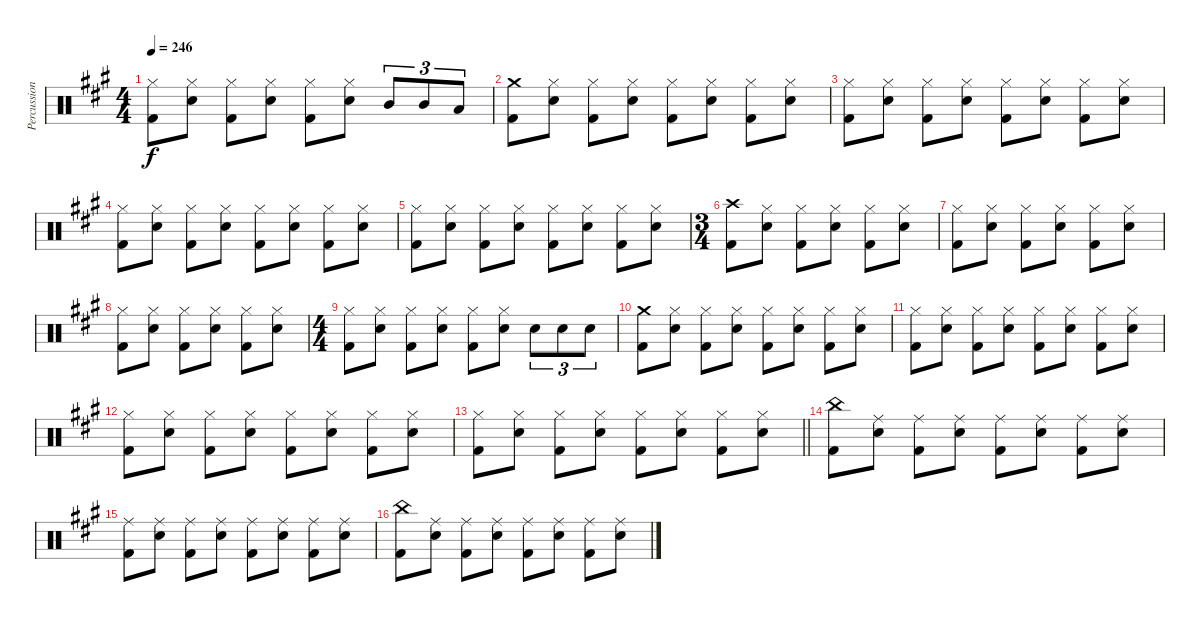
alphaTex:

\track ("Percussion" "Percussion") {instrument percussion}
\staff {score}
\articulation defaults
\ts (4 4)
\tempo 246
\clef neutral
\ks f#minor
("Hi-Hat (closed)" "Kick (hit) 2").8{dy f} ("Hi-Hat (closed)" "Electric Snare (hit)").8 ("Hi-Hat (closed)" "Kick (hit) 2").8 ("Hi-Hat (closed)" "Electric Snare (hit)").8 ("Hi-Hat (closed)" "Kick (hit) 2").8 ("Hi-Hat (closed)" "Electric Snare (hit)").8 "Mid Tom (hit)".8{tu (3 2)} "Mid Tom (hit)".8{tu (3 2)} "Low Tom (hit)".8{tu (3 2)} |
("Crash medium (hit)" "Kick (hit) 2").8 ("Hi-Hat (closed)" "Electric Snare (hit)").8 ("Hi-Hat (closed)" "Kick (hit) 2").8 ("Hi-Hat (closed)" "Electric Snare (hit)").8 ("Hi-Hat (closed)" "Kick (hit) 2").8 ("Hi-Hat (closed)" "Electric Snare (hit)").8 ("Hi-Hat (closed)" "Kick (hit) 2").8 ("Hi-Hat (closed)" "Electric Snare (hit)").8 |
("Hi-Hat (closed)" "Kick (hit) 2").8 ("Hi-Hat (closed)" "Electric Snare (hit)").8 ("Hi-Hat (closed)" "Kick (hit) 2").8 ("Hi-Hat (closed)" "Electric Snare (hit)").8 ("Hi-Hat (closed)" "Kick (hit) 2").8 ("Hi-Hat (closed)" "Electric Snare (hit)").8 ("Hi-Hat (closed)" "Kick (hit) 2").8 ("Hi-Hat (closed)" "Electric Snare (hit)").8 |
("Hi-Hat (closed)" "Kick (hit) 2").8 ("Hi-Hat (closed)" "Electric Snare (hit)").8 ("Hi-Hat (closed)" "Kick (hit) 2").8 ("Hi-Hat (closed)" "Electric Snare (hit)").8 ("Hi-Hat (closed)" "Kick (hit) 2").8 ("Hi-Hat (closed)" "Electric Snare (hit)").8 ("Hi-Hat (closed)" "Kick (hit) 2").8 ("Hi-Hat (closed)" "Electric Snare (hit)").8 |
("Hi-Hat (closed)" "Kick (hit) 2").8 ("Hi-Hat (closed)" "Electric Snare (hit)").8 ("Hi-Hat (closed)" "Kick (hit) 2").8 ("Hi-Hat (closed)" "Electric Snare (hit)").8 ("Hi-Hat (closed)" "Kick (hit) 2").8 ("Hi-Hat (closed)" "Electric Snare (hit)").8 ("Hi-Hat (closed)" "Kick (hit) 2").8 ("Hi-Hat (closed)" "Electric Snare (hit)").8 |
\ts (3 4)
("Crash high (hit)" "Kick (hit) 2").8 ("Hi-Hat (closed)" "Electric Snare (hit)").8 ("Hi-Hat (closed)" "Kick (hit) 2").8 ("Hi-Hat (closed)" "Electric Snare (hit)").8 ("Hi-Hat (closed)" "Kick (hit) 2").8 ("Hi-Hat (closed)" "Electric Snare (hit)").8 |
("Hi-Hat (closed)" "Kick (hit) 2").8 ("Hi-Hat (closed)" "Electric Snare (hit)").8 ("Hi-Hat (closed)" "Kick (hit) 2").8 ("Hi-Hat (closed)" "Electric Snare (hit)").8 ("Hi-Hat (closed)" "Kick (hit) 2").8 ("Hi-Hat (closed)" "Electric Snare (hit)").8 |
("Hi-Hat (closed)" "Kick (hit) 2").8 ("Hi-Hat (closed)" "Electric Snare (hit)").8 ("Hi-Hat (closed)" "Kick (hit) 2").8 ("Hi-Hat (closed)" "Electric Snare (hit)").8 ("Hi-Hat (closed)" "Kick (hit) 2").8 ("Hi-Hat (closed)" "Electric Snare (hit)").8 |
\ts (4 4)
("Hi-Hat (closed)" "Kick (hit) 2").8 ("Hi-Hat (closed)" "Electric Snare (hit)").8 ("Hi-Hat (closed)" "Kick (hit) 2").8 ("Hi-Hat (closed)" "Electric Snare (hit)").8 ("Hi-Hat (closed)" "Kick (hit) 2").8 ("Hi-Hat (closed)" "Electric Snare (hit)").8 "Electric Snare (hit)".8{tu (3 2)} "Electric Snare (hit)".8{tu (3 2)} "Electric Snare (hit)".8{tu (3 2)} |
("Crash medium (hit)" "Kick (hit) 2").8 ("Hi-Hat (closed)" "Electric Snare (hit)").8 ("Hi-Hat (closed)" "Kick (hit) 2").8 ("Hi-Hat (closed)" "Electric Snare (hit)").8 ("Hi-Hat (closed)" "Kick (hit) 2").8 ("Hi-Hat (closed)" "Electric Snare (hit)").8 ("Hi-Hat (closed)" "Kick (hit) 2").8 ("Hi-Hat (closed)" "Electric Snare (hit)").8 |
("Hi-Hat (closed)" "Kick (hit) 2").8 ("Hi-Hat (closed)" "Electric Snare (hit)").8 ("Hi-Hat (closed)" "Kick (hit) 2").8 ("Hi-Hat (closed)" "Electric Snare (hit)").8 ("Hi-Hat (closed)" "Kick (hit) 2").8 ("Hi-Hat (closed)" "Electric Snare (hit)").8 ("Hi-Hat (closed)" "Kick (hit) 2").8 ("Hi-Hat (closed)" "Electric Snare (hit)").8 |
("Hi-Hat (closed)" "Kick (hit) 2").8 ("Hi-Hat (closed)" "Electric Snare (hit)").8 ("Hi-Hat (closed)" "Kick (hit) 2").8 ("Hi-Hat (closed)" "Electric Snare (hit)").8 ("Hi-Hat (closed)" "Kick (hit) 2").8 ("Hi-Hat (closed)" "Electric Snare (hit)").8 ("Hi-Hat (closed)" "Kick (hit) 2").8 ("Hi-Hat (closed)" "Electric Snare (hit)").8 |
\barLineRight lightlight
("Hi-Hat (closed)" "Kick (hit) 2").8 ("Hi-Hat (closed)" "Electric Snare (hit)").8 ("Hi-Hat (closed)" "Kick (hit) 2").8 ("Hi-Hat (closed)" "Electric Snare (hit)").8 ("Hi-Hat (closed)" "Kick (hit) 2").8 ("Hi-Hat (closed)" "Electric Snare (hit)").8 ("Hi-Hat (closed)" "Kick (hit) 2").8 ("Hi-Hat (closed)" "Electric Snare (hit)").8 |
("China (hit)" "Kick (hit) 2").8 ("Ride (middle)" "Electric Snare (hit)").8 ("Ride (middle)" "Kick (hit) 2").8 ("Ride (middle)" "Electric Snare (hit)").8 ("Ride (middle)" "Kick (hit) 2").8 ("Ride (middle)" "Electric Snare (hit)").8 ("Ride (middle)" "Kick (hit) 2").8 ("Ride (middle)" "Electric Snare (hit)").8 |
("Ride (middle)" "Kick (hit) 2").8 ("Ride (middle)" "Electric Snare (hit)").8 ("Ride (middle)" "Kick (hit) 2").8 ("Ride (middle)" "Electric Snare (hit)").8 ("Ride (middle)" "Kick (hit) 2").8 ("Ride (middle)" "Electric Snare (hit)").8 ("Ride (middle)" "Kick (hit) 2").8 ("Ride (middle)" "Electric Snare (hit)").8 |
("China (hit)" "Kick (hit) 2").8 ("Ride (middle)" "Electric Snare (hit)").8 ("Ride (middle)" "Kick (hit) 2").8 ("Ride (middle)" "Electric Snare (hit)").8 ("Ride (middle)" "Kick (hit) 2").8 ("Ride (middle)" "Electric Snare (hit)").8 ("Ride (middle)" "Kick (hit) 2").8 ("Ride (middle)" "Electric Snare (hit)").8
